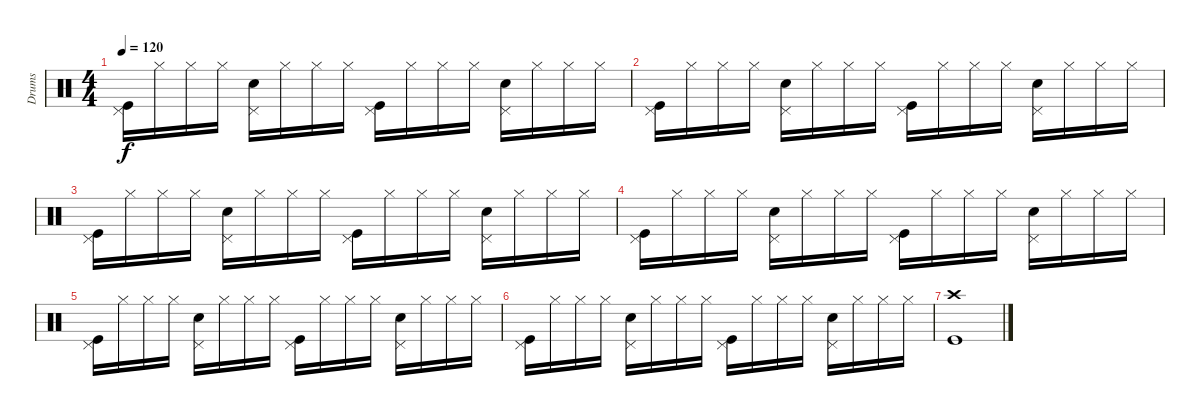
\track ("Drums" "Drums") {instrument percussion}
\staff {score}
\articulation defaults
\ts (4 4)
\tempo 120
\clef neutral
\ks c
("Pedal Hi-Hat (hit)" "Kick (hit)").16{dy f} "Hi-Hat (closed)".16 "Hi-Hat (closed)".16 "Hi-Hat (closed)".16 ("Pedal Hi-Hat (hit)" "Snare (hit) 2").16 "Hi-Hat (closed)".16 "Hi-Hat (closed)".16 "Hi-Hat (closed)".16 ("Pedal Hi-Hat (hit)" "Kick (hit)").16 "Hi-Hat (closed)".16 "Hi-Hat (closed)".16 "Hi-Hat (closed)".16 ("Pedal Hi-Hat (hit)" "Snare (hit) 2").16 "Hi-Hat (closed)".16 "Hi-Hat (closed)".16 "Hi-Hat (closed)".16 |
("Pedal Hi-Hat (hit)" "Kick (hit)").16 "Hi-Hat (closed)".16 "Hi-Hat (closed)".16 "Hi-Hat (closed)".16 ("Pedal Hi-Hat (hit)" "Snare (hit) 2").16 "Hi-Hat (closed)".16 "Hi-Hat (closed)".16 "Hi-Hat (closed)".16 ("Pedal Hi-Hat (hit)" "Kick (hit)").16 "Hi-Hat (closed)".16 "Hi-Hat (closed)".16 "Hi-Hat (closed)".16 ("Pedal Hi-Hat (hit)" "Snare (hit) 2").16 "Hi-Hat (closed)".16 "Hi-Hat (closed)".16 "Hi-Hat (closed)".16 |
("Pedal Hi-Hat (hit)" "Kick (hit)").16 "Hi-Hat (closed)".16 "Hi-Hat (closed)".16 "Hi-Hat (closed)".16 ("Pedal Hi-Hat (hit)" "Snare (hit) 2").16 "Hi-Hat (closed)".16 "Hi-Hat (closed)".16 "Hi-Hat (closed)".16 ("Pedal Hi-Hat (hit)" "Kick (hit)").16 "Hi-Hat (closed)".16 "Hi-Hat (closed)".16 "Hi-Hat (closed)".16 ("Pedal Hi-Hat (hit)" "Snare (hit) 2").16 "Hi-Hat (closed)".16 "Hi-Hat (closed)".16 "Hi-Hat (closed)".16 |
("Pedal Hi-Hat (hit)" "Kick (hit)").16 "Hi-Hat (closed)".16 "Hi-Hat (closed)".16 "Hi-Hat (closed)".16 ("Pedal Hi-Hat (hit)" "Snare (hit) 2").16 "Hi-Hat (closed)".16 "Hi-Hat (closed)".16 "Hi-Hat (closed)".16 ("Pedal Hi-Hat (hit)" "Kick (hit)").16 "Hi-Hat (closed)".16 "Hi-Hat (closed)".16 "Hi-Hat (closed)".16 ("Pedal Hi-Hat (hit)" "Snare (hit) 2").16 "Hi-Hat (closed)".16 "Hi-Hat (closed)".16 "Hi-Hat (closed)".16 |
("Pedal Hi-Hat (hit)" "Kick (hit)").16 "Hi-Hat (closed)".16 "Hi-Hat (closed)".16 "Hi-Hat (closed)".16 ("Pedal Hi-Hat (hit)" "Snare (hit) 2").16 "Hi-Hat (closed)".16 "Hi-Hat (closed)".16 "Hi-Hat (closed)".16 ("Pedal Hi-Hat (hit)" "Kick (hit)").16 "Hi-Hat (closed)".16 "Hi-Hat (closed)".16 "Hi-Hat (closed)".16 ("Pedal Hi-Hat (hit)" "Snare (hit) 2").16 "Hi-Hat (closed)".16 "Hi-Hat (closed)".16 "Hi-Hat (closed)".16 |
("Pedal Hi-Hat (hit)" "Kick (hit)").16 "Hi-Hat (closed)".16 "Hi-Hat (closed)".16 "Hi-Hat (closed)".16 ("Pedal Hi-Hat (hit)" "Snare (hit) 2").16 "Hi-Hat (closed)".16 "Hi-Hat (closed)".16 "Hi-Hat (closed)".16 ("Pedal Hi-Hat (hit)" "Kick (hit)").16 "Hi-Hat (closed)".16 "Hi-Hat (closed)".16 "Hi-Hat (closed)".16 ("Pedal Hi-Hat (hit)" "Snare (hit) 2").16 "Hi-Hat (closed)".16 "Hi-Hat (closed)".16 "Hi-Hat (closed)".16 |
("Kick (hit)" "Crash high (hit)").1
